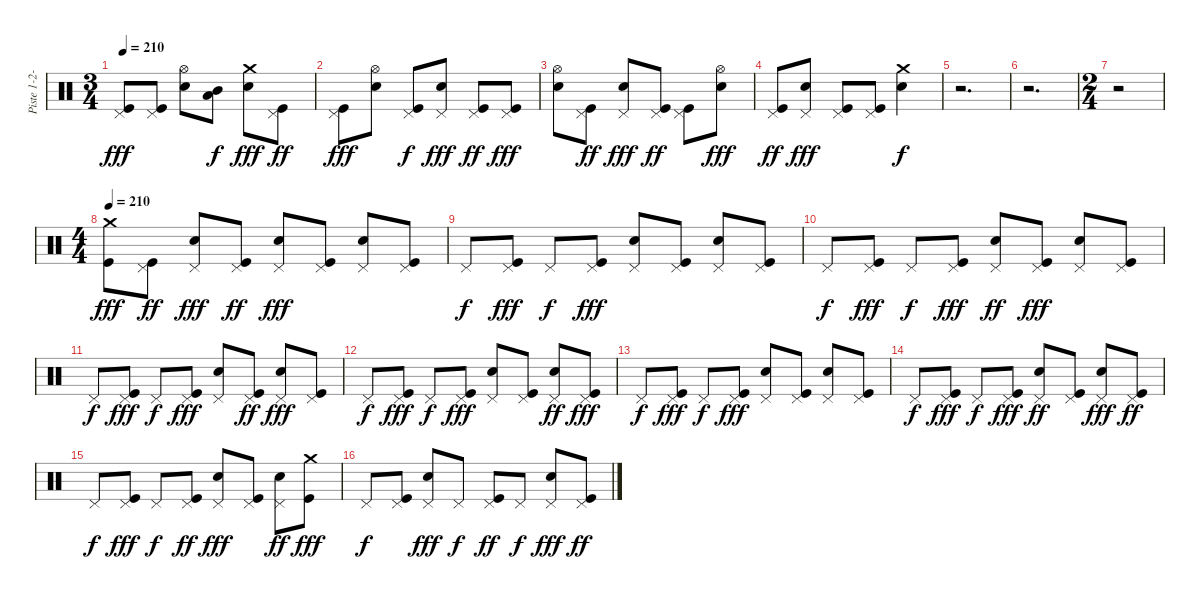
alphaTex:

\track ("Piste 1-2-3-4" "Piste 1-2-") {instrument percussion}
\staff {score}
\articulation defaults
\ts (3 4)
\tempo 210
\clef neutral
\ks c
("Pedal Hi-Hat (hit)" "Kick (hit)").8{dy fff} ("Pedal Hi-Hat (hit)" "Kick (hit)").8 ("Hi-Hat (open)" "Snare (hit) 2").8 ("Low Tom (hit)" "Mid Tom (hit)").8{dy f} ("Crash medium (hit)" "Snare (hit) 2").8{dy fff} ("Pedal Hi-Hat (hit)" "Kick (hit)").8{dy ff} |
("Pedal Hi-Hat (hit)" "Kick (hit)").8{dy fff} ("Hi-Hat (open)" "Snare (hit) 2").8 ("Pedal Hi-Hat (hit)" "Kick (hit)").8{dy f} ("Pedal Hi-Hat (hit)" "Snare (hit) 2").8{dy fff} ("Pedal Hi-Hat (hit)" "Kick (hit)").8{dy ff} ("Pedal Hi-Hat (hit)" "Kick (hit)").8{dy fff} |
("Hi-Hat (open)" "Snare (hit) 2").8 ("Pedal Hi-Hat (hit)" "Kick (hit)").8{dy ff} ("Pedal Hi-Hat (hit)" "Snare (hit) 2").8{dy fff} ("Pedal Hi-Hat (hit)" "Kick (hit)").8{dy ff} ("Pedal Hi-Hat (hit)" "Kick (hit)").8 ("Hi-Hat (open)" "Snare (hit) 2").8{dy fff} |
("Pedal Hi-Hat (hit)" "Kick (hit)").8{dy ff} ("Pedal Hi-Hat (hit)" "Snare (hit) 2").8{dy fff} ("Pedal Hi-Hat (hit)" "Kick (hit)").8 ("Pedal Hi-Hat (hit)" "Kick (hit)").8 ("Crash medium (hit)" "Snare (hit) 2").4{dy f} |
r.2{d} |
r.2{d} |
\ts (2 4)
r.2 |
\ts (4 4)
\tempo 210
("Crash medium (hit)" "Kick (hit)").8{dy fff} ("Pedal Hi-Hat (hit)" "Kick (hit)").8{dy ff} ("Pedal Hi-Hat (hit)" "Snare (hit) 2").8{dy fff} ("Pedal Hi-Hat (hit)" "Kick (hit)").8{dy ff} ("Pedal Hi-Hat (hit)" "Snare (hit) 2").8{dy fff} ("Pedal Hi-Hat (hit)" "Kick (hit)").8 ("Pedal Hi-Hat (hit)" "Snare (hit) 2").8 ("Pedal Hi-Hat (hit)" "Kick (hit)").8 |
"Pedal Hi-Hat (hit)".8{dy f} ("Pedal Hi-Hat (hit)" "Kick (hit)").8{dy fff} "Pedal Hi-Hat (hit)".8{dy f} ("Pedal Hi-Hat (hit)" "Kick (hit)").8{dy fff} ("Pedal Hi-Hat (hit)" "Snare (hit) 2").8 ("Pedal Hi-Hat (hit)" "Kick (hit)").8 ("Pedal Hi-Hat (hit)" "Snare (hit) 2").8 ("Pedal Hi-Hat (hit)" "Kick (hit)").8 |
"Pedal Hi-Hat (hit)".8{dy f} ("Pedal Hi-Hat (hit)" "Kick (hit)").8{dy fff} "Pedal Hi-Hat (hit)".8{dy f} ("Pedal Hi-Hat (hit)" "Kick (hit)").8{dy fff} ("Pedal Hi-Hat (hit)" "Snare (hit) 2").8{dy ff} ("Pedal Hi-Hat (hit)" "Kick (hit)").8{dy fff} ("Pedal Hi-Hat (hit)" "Snare (hit) 2").8 ("Pedal Hi-Hat (hit)" "Kick (hit)").8 |
"Pedal Hi-Hat (hit)".8{dy f} ("Pedal Hi-Hat (hit)" "Kick (hit)").8{dy fff} "Pedal Hi-Hat (hit)".8{dy f} ("Pedal Hi-Hat (hit)" "Kick (hit)").8{dy fff} ("Pedal Hi-Hat (hit)" "Snare (hit) 2").8 ("Pedal Hi-Hat (hit)" "Kick (hit)").8{dy ff} ("Pedal Hi-Hat (hit)" "Snare (hit) 2").8{dy fff} ("Pedal Hi-Hat (hit)" "Kick (hit)").8 |
"Pedal Hi-Hat (hit)".8{dy f} ("Pedal Hi-Hat (hit)" "Kick (hit)").8{dy fff} "Pedal Hi-Hat (hit)".8{dy f} ("Pedal Hi-Hat (hit)" "Kick (hit)").8{dy fff} ("Pedal Hi-Hat (hit)" "Snare (hit) 2").8 ("Pedal Hi-Hat (hit)" "Kick (hit)").8 ("Pedal Hi-Hat (hit)" "Snare (hit) 2").8{dy ff} ("Pedal Hi-Hat (hit)" "Kick (hit)").8{dy fff} |
"Pedal Hi-Hat (hit)".8{dy f} ("Pedal Hi-Hat (hit)" "Kick (hit)").8{dy fff} "Pedal Hi-Hat (hit)".8{dy f} ("Pedal Hi-Hat (hit)" "Kick (hit)").8{dy fff} ("Pedal Hi-Hat (hit)" "Snare (hit) 2").8 ("Pedal Hi-Hat (hit)" "Kick (hit)").8 ("Pedal Hi-Hat (hit)" "Snare (hit) 2").8 ("Pedal Hi-Hat (hit)" "Kick (hit)").8 |
"Pedal Hi-Hat (hit)".8{dy f} ("Pedal Hi-Hat (hit)" "Kick (hit)").8{dy fff} "Pedal Hi-Hat (hit)".8{dy f} ("Pedal Hi-Hat (hit)" "Kick (hit)").8{dy fff} ("Pedal Hi-Hat (hit)" "Snare (hit) 2").8{dy ff} ("Pedal Hi-Hat (hit)" "Kick (hit)").8 ("Pedal Hi-Hat (hit)" "Snare (hit) 2").8{dy fff} ("Pedal Hi-Hat (hit)" "Kick (hit)").8{dy ff} |
"Pedal Hi-Hat (hit)".8{dy f} ("Pedal Hi-Hat (hit)" "Kick (hit)").8{dy fff} "Pedal Hi-Hat (hit)".8{dy f} ("Pedal Hi-Hat (hit)" "Kick (hit)").8{dy ff} ("Pedal Hi-Hat (hit)" "Snare (hit) 2").8{dy fff} ("Pedal Hi-Hat (hit)" "Kick (hit)").8 ("Pedal Hi-Hat (hit)" "Snare (hit) 2").8{dy ff} ("Crash medium (hit)" "Kick (hit)").8{dy fff} |
"Pedal Hi-Hat (hit)".8{dy f} ("Pedal Hi-Hat (hit)" "Kick (hit)").8 ("Pedal Hi-Hat (hit)" "Snare (hit) 2").8{dy fff} "Pedal Hi-Hat (hit)".8{dy f} ("Pedal Hi-Hat (hit)" "Kick (hit)").8{dy ff} "Pedal Hi-Hat (hit)".8{dy f} ("Pedal Hi-Hat (hit)" "Snare (hit) 2").8{dy fff} ("Pedal Hi-Hat (hit)" "Kick (hit)").8{dy ff}
